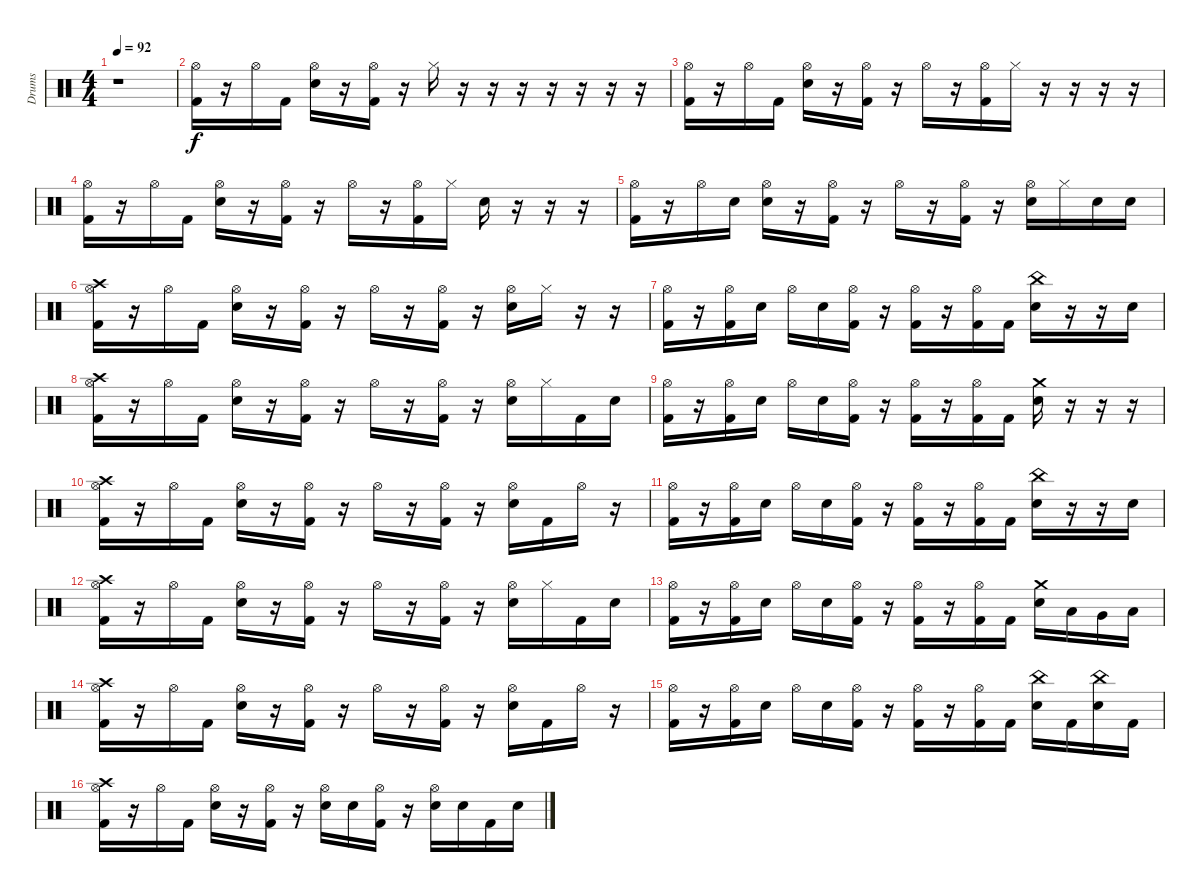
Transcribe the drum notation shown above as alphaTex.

\track ("Drums" "Drums") {instrument percussion}
\staff {score}
\articulation defaults
\ts (4 4)
\tempo 92
\clef neutral
\ks c
r.1{dy f} |
("Hi-Hat (open)" "Kick (hit) 2").16 r.16 "Hi-Hat (open)".16 "Kick (hit) 2".16 ("Hi-Hat (open)" "Snare (hit) 2").16 r.16 ("Hi-Hat (open)" "Kick (hit) 2").16 r.16 "Hi-Hat (closed)".16 r.16 r.16 r.16 r.16 r.16 r.16 r.16 |
("Hi-Hat (open)" "Kick (hit) 2").16 r.16 "Hi-Hat (open)".16 "Kick (hit) 2".16 ("Hi-Hat (open)" "Snare (hit) 2").16 r.16 ("Hi-Hat (open)" "Kick (hit) 2").16 r.16 "Hi-Hat (open)".16 r.16 ("Hi-Hat (open)" "Kick (hit) 2").16 "Hi-Hat (closed)".16 r.16 r.16 r.16 r.16 |
("Hi-Hat (open)" "Kick (hit) 2").16 r.16 "Hi-Hat (open)".16 "Kick (hit) 2".16 ("Hi-Hat (open)" "Snare (hit) 2").16 r.16 ("Hi-Hat (open)" "Kick (hit) 2").16 r.16 "Hi-Hat (open)".16 r.16 ("Hi-Hat (open)" "Kick (hit) 2").16 "Hi-Hat (closed)".16 "Snare (hit) 2".16 r.16 r.16 r.16 |
("Hi-Hat (open)" "Kick (hit) 2").16 r.16 "Hi-Hat (open)".16 "Snare (hit) 2".16 ("Hi-Hat (open)" "Snare (hit) 2").16 r.16 ("Hi-Hat (open)" "Kick (hit) 2").16 r.16 "Hi-Hat (open)".16 r.16 ("Hi-Hat (open)" "Kick (hit) 2").16 r.16 ("Hi-Hat (open)" "Snare (hit) 2").16 "Hi-Hat (closed)".16 "Snare (hit) 2".16 "Snare (hit) 2".16 |
("Crash high (hit)" "Hi-Hat (open)" "Kick (hit) 2").16 r.16 "Hi-Hat (open)".16 "Kick (hit) 2".16 ("Hi-Hat (open)" "Snare (hit) 2").16 r.16 ("Hi-Hat (open)" "Kick (hit) 2").16 r.16 "Hi-Hat (open)".16 r.16 ("Hi-Hat (open)" "Kick (hit) 2").16 r.16 ("Hi-Hat (open)" "Snare (hit) 2").16 "Hi-Hat (closed)".16 r.16 r.16 |
("Hi-Hat (open)" "Kick (hit) 2").16 r.16 ("Hi-Hat (open)" "Kick (hit) 2").16 "Snare (hit) 2".16 "Hi-Hat (open)".16 "Snare (hit) 2".16 ("Hi-Hat (open)" "Kick (hit) 2").16 r.16 ("Hi-Hat (open)" "Kick (hit) 2").16 r.16 ("Hi-Hat (open)" "Kick (hit) 2").16 "Kick (hit) 2".16 ("China (hit)" "Snare (hit) 2").16 r.16 r.16 "Snare (hit) 2".16 |
("Crash high (hit)" "Hi-Hat (open)" "Kick (hit) 2").16 r.16 "Hi-Hat (open)".16 "Kick (hit) 2".16 ("Hi-Hat (open)" "Snare (hit) 2").16 r.16 ("Hi-Hat (open)" "Kick (hit) 2").16 r.16 "Hi-Hat (open)".16 r.16 ("Hi-Hat (open)" "Kick (hit) 2").16 r.16 ("Hi-Hat (open)" "Snare (hit) 2").16 "Hi-Hat (closed)".16 "Kick (hit) 2".16 "Snare (hit) 2".16 |
("Hi-Hat (open)" "Kick (hit) 2").16 r.16 ("Hi-Hat (open)" "Kick (hit) 2").16 "Snare (hit) 2".16 "Hi-Hat (open)".16 "Snare (hit) 2".16 ("Hi-Hat (open)" "Kick (hit) 2").16 r.16 ("Hi-Hat (open)" "Kick (hit) 2").16 r.16 ("Hi-Hat (open)" "Kick (hit) 2").16 "Kick (hit) 2".16 ("Crash medium (hit)" "Snare (hit) 2").16 r.16 r.16 r.16 |
("Crash high (hit)" "Hi-Hat (open)" "Kick (hit) 2").16 r.16 "Hi-Hat (open)".16 "Kick (hit) 2".16 ("Hi-Hat (open)" "Snare (hit) 2").16 r.16 ("Hi-Hat (open)" "Kick (hit) 2").16 r.16 "Hi-Hat (open)".16 r.16 ("Hi-Hat (open)" "Kick (hit) 2").16 r.16 ("Hi-Hat (open)" "Snare (hit) 2").16 "Kick (hit) 2".16 "Hi-Hat (open)".16 r.16 |
("Hi-Hat (open)" "Kick (hit) 2").16 r.16 ("Hi-Hat (open)" "Kick (hit) 2").16 "Snare (hit) 2".16 "Hi-Hat (open)".16 "Snare (hit) 2".16 ("Hi-Hat (open)" "Kick (hit) 2").16 r.16 ("Hi-Hat (open)" "Kick (hit) 2").16 r.16 ("Hi-Hat (open)" "Kick (hit) 2").16 "Kick (hit) 2".16 ("China (hit)" "Snare (hit) 2").16 r.16 r.16 "Snare (hit) 2".16 |
("Crash high (hit)" "Hi-Hat (open)" "Kick (hit) 2").16 r.16 "Hi-Hat (open)".16 "Kick (hit) 2".16 ("Hi-Hat (open)" "Snare (hit) 2").16 r.16 ("Hi-Hat (open)" "Kick (hit) 2").16 r.16 "Hi-Hat (open)".16 r.16 ("Hi-Hat (open)" "Kick (hit) 2").16 r.16 ("Hi-Hat (open)" "Snare (hit) 2").16 "Hi-Hat (closed)".16 "Kick (hit) 2".16 "Snare (hit) 2".16 |
("Hi-Hat (open)" "Kick (hit) 2").16 r.16 ("Hi-Hat (open)" "Kick (hit) 2").16 "Snare (hit) 2".16 "Hi-Hat (open)".16 "Snare (hit) 2".16 ("Hi-Hat (open)" "Kick (hit) 2").16 r.16 ("Hi-Hat (open)" "Kick (hit) 2").16 r.16 ("Hi-Hat (open)" "Kick (hit) 2").16 "Kick (hit) 2".16 ("Crash medium (hit)" "Snare (hit) 2").16 "Low Tom (hit)".16 "Very Low Tom (hit)".16 "Low Floor Tom (hit)".16 |
("Crash high (hit)" "Hi-Hat (open)" "Kick (hit) 2").16 r.16 "Hi-Hat (open)".16 "Kick (hit) 2".16 ("Hi-Hat (open)" "Snare (hit) 2").16 r.16 ("Hi-Hat (open)" "Kick (hit) 2").16 r.16 "Hi-Hat (open)".16 r.16 ("Hi-Hat (open)" "Kick (hit) 2").16 r.16 ("Hi-Hat (open)" "Snare (hit) 2").16 "Kick (hit) 2".16 "Hi-Hat (open)".16 r.16 |
("Hi-Hat (open)" "Kick (hit) 2").16 r.16 ("Hi-Hat (open)" "Kick (hit) 2").16 "Snare (hit) 2".16 "Hi-Hat (open)".16 "Snare (hit) 2".16 ("Hi-Hat (open)" "Kick (hit) 2").16 r.16 ("Hi-Hat (open)" "Kick (hit) 2").16 r.16 ("Hi-Hat (open)" "Kick (hit) 2").16 "Kick (hit) 2".16 ("China (hit)" "Snare (hit) 2").16 "Kick (hit) 2".16 ("China (hit)" "Snare (hit) 2").16 "Kick (hit) 2".16 |
("Crash high (hit)" "Hi-Hat (open)" "Kick (hit) 2").16 r.16 "Hi-Hat (open)".16 "Kick (hit) 2".16 ("Hi-Hat (open)" "Snare (hit) 2").16 r.16 ("Hi-Hat (open)" "Kick (hit) 2").16 r.16 ("Hi-Hat (open)" "Snare (hit) 2").16 "Snare (hit) 2".16 ("Hi-Hat (open)" "Kick (hit) 2").16 r.16 ("Hi-Hat (open)" "Snare (hit) 2").16 "Snare (hit) 2".16 "Kick (hit) 2".16 "Snare (hit) 2".16
